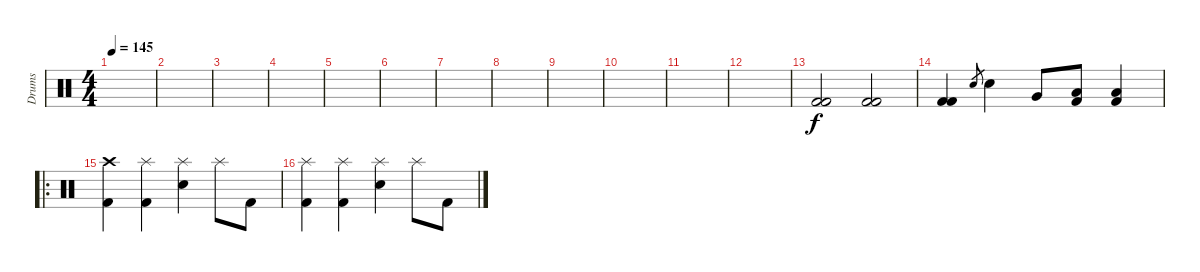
\track ("Drums" "Drums") {instrument percussion}
\staff {score}
\articulation defaults
\ts (4 4)
\tempo 145
\clef neutral
\ks c
|
|
|
|
|
|
|
|
|
|
|
|
("Kick (hit) 2" "Kick (hit) 2").2 ("Kick (hit) 2" "Kick (hit) 2").2 |
("Kick (hit) 2" "Kick (hit) 2").4 "Snare (hit) 2".8{gr} "Snare (hit) 2".4 "Very Low Tom (hit)".8 ("Kick (hit) 2" "Low Floor Tom (hit)").8 ("Kick (hit) 2" "Low Floor Tom (hit)").4 |
\ro
("Kick (hit) 2" "Crash high (hit)").4 ("Kick (hit) 2" "Splash (hit)").4 ("Snare (hit) 2" "Splash (hit)").4 "Splash (hit)".8 "Kick (hit) 2".8 |
("Kick (hit) 2" "Splash (hit)").4 ("Kick (hit) 2" "Splash (hit)").4 ("Snare (hit) 2" "Splash (hit)").4 "Splash (hit)".8 "Kick (hit) 2".8
